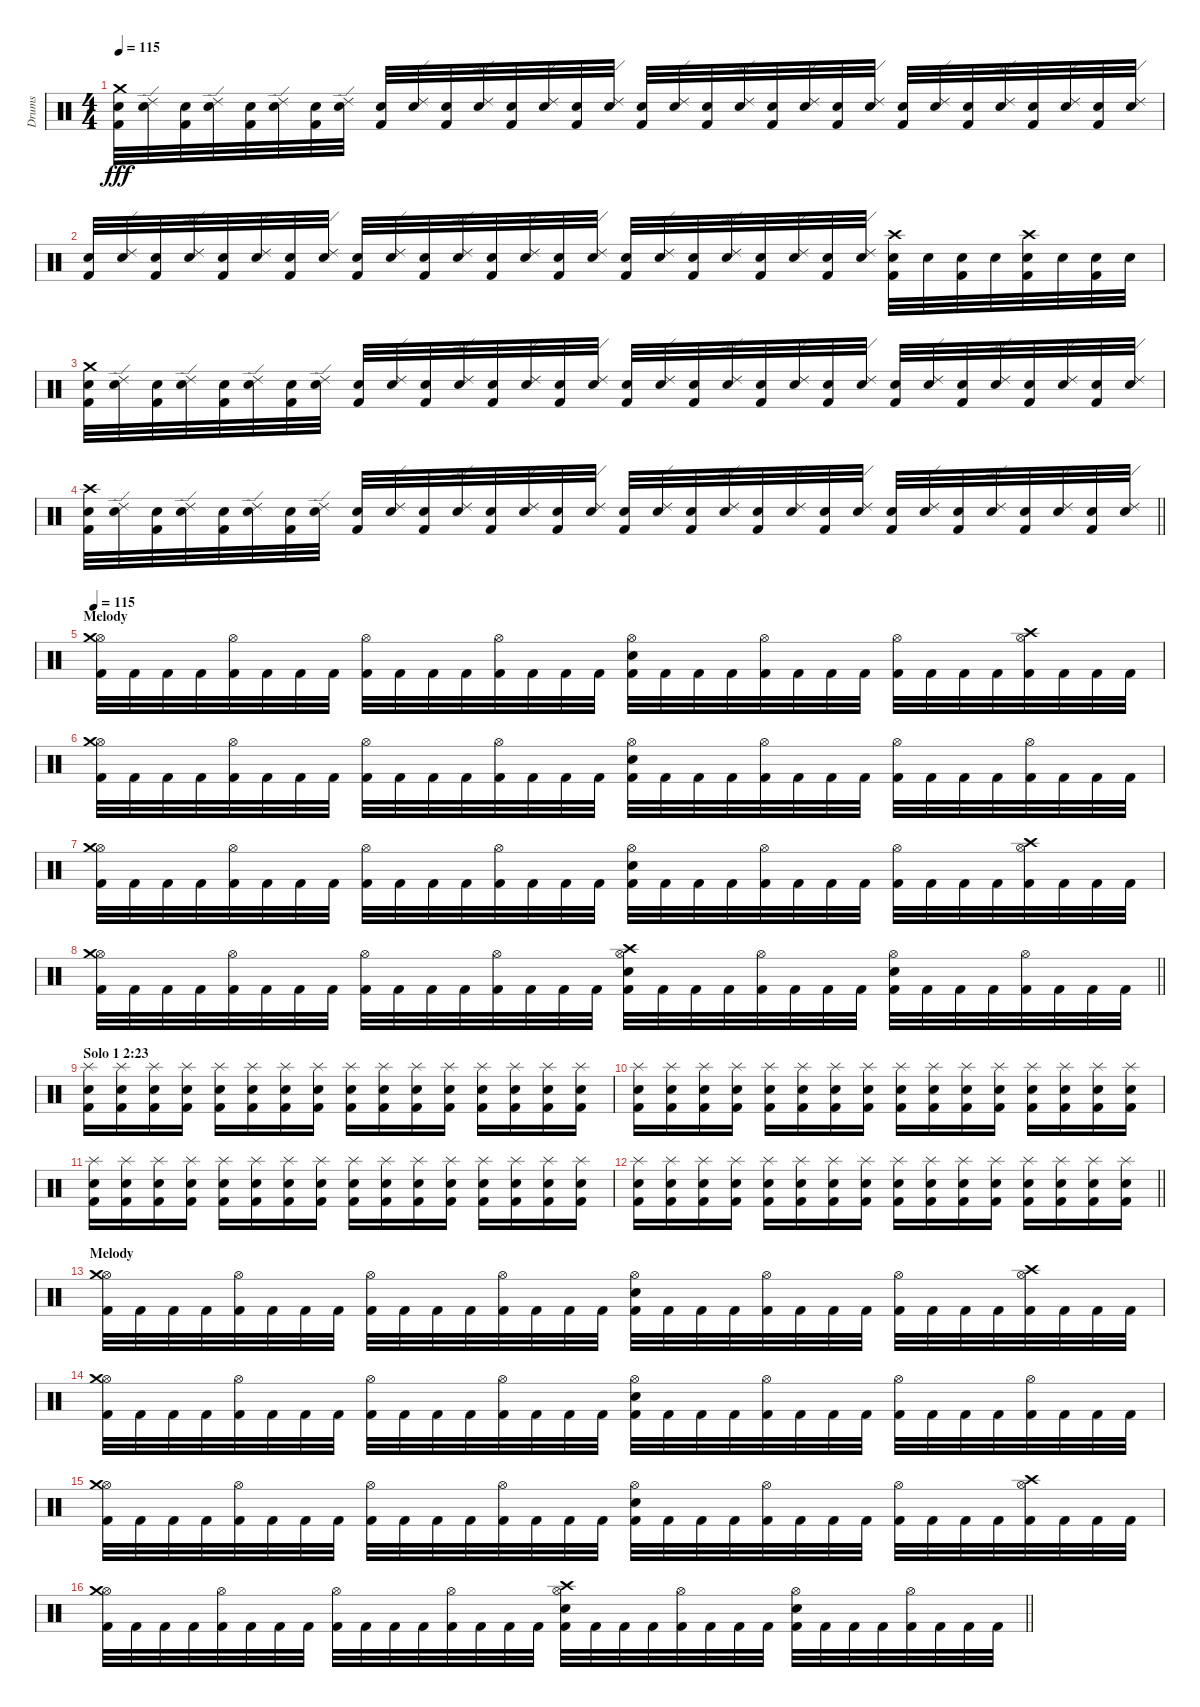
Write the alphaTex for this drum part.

\track ("Drums" "Drums") {instrument percussion}
\staff {score}
\articulation defaults
\ts (4 4)
\tempo 115
\clef neutral
\ks c
("Kick (hit) 2" "Electric Snare (hit)" "Crash medium (hit)").32{dy fff} ("Electric Snare (hit)" "Ride (edge) 2").32 ("Kick (hit) 2" "Electric Snare (hit)").32 ("Electric Snare (hit)" "Ride (edge) 2").32 ("Kick (hit) 2" "Electric Snare (hit)").32 ("Electric Snare (hit)" "Ride (edge) 2").32 ("Kick (hit) 2" "Electric Snare (hit)").32 ("Electric Snare (hit)" "Ride (edge) 2").32 ("Kick (hit) 2" "Electric Snare (hit)").32 ("Electric Snare (hit)" "Ride (edge) 2").32 ("Kick (hit) 2" "Electric Snare (hit)").32 ("Electric Snare (hit)" "Ride (edge) 2").32 ("Kick (hit) 2" "Electric Snare (hit)").32 ("Electric Snare (hit)" "Ride (edge) 2").32 ("Kick (hit) 2" "Electric Snare (hit)").32 ("Electric Snare (hit)" "Ride (edge) 2").32 ("Kick (hit) 2" "Electric Snare (hit)").32 ("Electric Snare (hit)" "Ride (edge) 2").32 ("Kick (hit) 2" "Electric Snare (hit)").32 ("Electric Snare (hit)" "Ride (edge) 2").32 ("Kick (hit) 2" "Electric Snare (hit)").32 ("Electric Snare (hit)" "Ride (edge) 2").32 ("Kick (hit) 2" "Electric Snare (hit)").32 ("Electric Snare (hit)" "Ride (edge) 2").32 ("Kick (hit) 2" "Electric Snare (hit)").32 ("Electric Snare (hit)" "Ride (edge) 2").32 ("Kick (hit) 2" "Electric Snare (hit)").32 ("Electric Snare (hit)" "Ride (edge) 2").32 ("Kick (hit) 2" "Electric Snare (hit)").32 ("Electric Snare (hit)" "Ride (edge) 2").32 ("Kick (hit) 2" "Electric Snare (hit)").32 ("Electric Snare (hit)" "Ride (edge) 2").32 |
("Kick (hit) 2" "Electric Snare (hit)").32 ("Electric Snare (hit)" "Ride (edge) 2").32 ("Kick (hit) 2" "Electric Snare (hit)").32 ("Electric Snare (hit)" "Ride (edge) 2").32 ("Kick (hit) 2" "Electric Snare (hit)").32 ("Electric Snare (hit)" "Ride (edge) 2").32 ("Kick (hit) 2" "Electric Snare (hit)").32 ("Electric Snare (hit)" "Ride (edge) 2").32 ("Kick (hit) 2" "Electric Snare (hit)").32 ("Electric Snare (hit)" "Ride (edge) 2").32 ("Kick (hit) 2" "Electric Snare (hit)").32 ("Electric Snare (hit)" "Ride (edge) 2").32 ("Kick (hit) 2" "Electric Snare (hit)").32 ("Electric Snare (hit)" "Ride (edge) 2").32 ("Kick (hit) 2" "Electric Snare (hit)").32 ("Electric Snare (hit)" "Ride (edge) 2").32 ("Kick (hit) 2" "Electric Snare (hit)").32 ("Electric Snare (hit)" "Ride (edge) 2").32 ("Kick (hit) 2" "Electric Snare (hit)").32 ("Electric Snare (hit)" "Ride (edge) 2").32 ("Kick (hit) 2" "Electric Snare (hit)").32 ("Electric Snare (hit)" "Ride (edge) 2").32 ("Kick (hit) 2" "Electric Snare (hit)").32 ("Electric Snare (hit)" "Ride (edge) 2").32 ("Kick (hit) 2" "Electric Snare (hit)" "Crash high (hit)").32 "Electric Snare (hit)".32 ("Kick (hit) 2" "Electric Snare (hit)").32 "Electric Snare (hit)".32 ("Kick (hit) 2" "Electric Snare (hit)" "Crash high (hit)").32 "Electric Snare (hit)".32 ("Kick (hit) 2" "Electric Snare (hit)").32 "Electric Snare (hit)".32 |
("Kick (hit) 2" "Electric Snare (hit)" "Crash medium (hit)").32 ("Electric Snare (hit)" "Ride (edge) 2").32 ("Kick (hit) 2" "Electric Snare (hit)").32 ("Electric Snare (hit)" "Ride (edge) 2").32 ("Kick (hit) 2" "Electric Snare (hit)").32 ("Electric Snare (hit)" "Ride (edge) 2").32 ("Kick (hit) 2" "Electric Snare (hit)").32 ("Electric Snare (hit)" "Ride (edge) 2").32 ("Kick (hit) 2" "Electric Snare (hit)").32 ("Electric Snare (hit)" "Ride (edge) 2").32 ("Kick (hit) 2" "Electric Snare (hit)").32 ("Electric Snare (hit)" "Ride (edge) 2").32 ("Kick (hit) 2" "Electric Snare (hit)").32 ("Electric Snare (hit)" "Ride (edge) 2").32 ("Kick (hit) 2" "Electric Snare (hit)").32 ("Electric Snare (hit)" "Ride (edge) 2").32 ("Kick (hit) 2" "Electric Snare (hit)").32 ("Electric Snare (hit)" "Ride (edge) 2").32 ("Kick (hit) 2" "Electric Snare (hit)").32 ("Electric Snare (hit)" "Ride (edge) 2").32 ("Kick (hit) 2" "Electric Snare (hit)").32 ("Electric Snare (hit)" "Ride (edge) 2").32 ("Kick (hit) 2" "Electric Snare (hit)").32 ("Electric Snare (hit)" "Ride (edge) 2").32 ("Kick (hit) 2" "Electric Snare (hit)").32 ("Electric Snare (hit)" "Ride (edge) 2").32 ("Kick (hit) 2" "Electric Snare (hit)").32 ("Electric Snare (hit)" "Ride (edge) 2").32 ("Kick (hit) 2" "Electric Snare (hit)").32 ("Electric Snare (hit)" "Ride (edge) 2").32 ("Kick (hit) 2" "Electric Snare (hit)").32 ("Electric Snare (hit)" "Ride (edge) 2").32 |
\barLineRight lightlight
("Kick (hit) 2" "Electric Snare (hit)" "Crash high (hit)").32 ("Electric Snare (hit)" "Ride (edge) 2").32 ("Kick (hit) 2" "Electric Snare (hit)").32 ("Electric Snare (hit)" "Ride (edge) 2").32 ("Kick (hit) 2" "Electric Snare (hit)").32 ("Electric Snare (hit)" "Ride (edge) 2").32 ("Kick (hit) 2" "Electric Snare (hit)").32 ("Electric Snare (hit)" "Ride (edge) 2").32 ("Kick (hit) 2" "Electric Snare (hit)").32 ("Electric Snare (hit)" "Ride (edge) 2").32 ("Kick (hit) 2" "Electric Snare (hit)").32 ("Electric Snare (hit)" "Ride (edge) 2").32 ("Kick (hit) 2" "Electric Snare (hit)").32 ("Electric Snare (hit)" "Ride (edge) 2").32 ("Kick (hit) 2" "Electric Snare (hit)").32 ("Electric Snare (hit)" "Ride (edge) 2").32 ("Kick (hit) 2" "Electric Snare (hit)").32 ("Electric Snare (hit)" "Ride (edge) 2").32 ("Kick (hit) 2" "Electric Snare (hit)").32 ("Electric Snare (hit)" "Ride (edge) 2").32 ("Kick (hit) 2" "Electric Snare (hit)").32 ("Electric Snare (hit)" "Ride (edge) 2").32 ("Kick (hit) 2" "Electric Snare (hit)").32 ("Electric Snare (hit)" "Ride (edge) 2").32 ("Kick (hit) 2" "Electric Snare (hit)").32 ("Electric Snare (hit)" "Ride (edge) 2").32 ("Kick (hit) 2" "Electric Snare (hit)").32 ("Electric Snare (hit)" "Ride (edge) 2").32 ("Kick (hit) 2" "Electric Snare (hit)").32 ("Electric Snare (hit)" "Ride (edge) 2").32 ("Kick (hit) 2" "Electric Snare (hit)").32 ("Electric Snare (hit)" "Ride (edge) 2").32 |
\section ("" "Melody")
\tempo 115
("Kick (hit) 2" "Hi-Hat (open)" "Crash medium (hit)").32 "Kick (hit) 2".32 "Kick (hit) 2".32 "Kick (hit) 2".32 ("Kick (hit) 2" "Hi-Hat (open)").32 "Kick (hit) 2".32 "Kick (hit) 2".32 "Kick (hit) 2".32 ("Kick (hit) 2" "Hi-Hat (open)").32 "Kick (hit) 2".32 "Kick (hit) 2".32 "Kick (hit) 2".32 ("Kick (hit) 2" "Hi-Hat (open)").32 "Kick (hit) 2".32 "Kick (hit) 2".32 "Kick (hit) 2".32 ("Kick (hit) 2" "Electric Snare (hit)" "Hi-Hat (open)").32 "Kick (hit) 2".32 "Kick (hit) 2".32 "Kick (hit) 2".32 ("Kick (hit) 2" "Hi-Hat (open)").32 "Kick (hit) 2".32 "Kick (hit) 2".32 "Kick (hit) 2".32 ("Kick (hit) 2" "Hi-Hat (open)").32 "Kick (hit) 2".32 "Kick (hit) 2".32 "Kick (hit) 2".32 ("Kick (hit) 2" "Hi-Hat (open)" "Crash high (hit)").32 "Kick (hit) 2".32 "Kick (hit) 2".32 "Kick (hit) 2".32 |
("Kick (hit) 2" "Hi-Hat (open)" "Crash medium (hit)").32 "Kick (hit) 2".32 "Kick (hit) 2".32 "Kick (hit) 2".32 ("Kick (hit) 2" "Hi-Hat (open)").32 "Kick (hit) 2".32 "Kick (hit) 2".32 "Kick (hit) 2".32 ("Kick (hit) 2" "Hi-Hat (open)").32 "Kick (hit) 2".32 "Kick (hit) 2".32 "Kick (hit) 2".32 ("Kick (hit) 2" "Hi-Hat (open)").32 "Kick (hit) 2".32 "Kick (hit) 2".32 "Kick (hit) 2".32 ("Kick (hit) 2" "Electric Snare (hit)" "Hi-Hat (open)").32 "Kick (hit) 2".32 "Kick (hit) 2".32 "Kick (hit) 2".32 ("Kick (hit) 2" "Hi-Hat (open)").32 "Kick (hit) 2".32 "Kick (hit) 2".32 "Kick (hit) 2".32 ("Kick (hit) 2" "Hi-Hat (open)").32 "Kick (hit) 2".32 "Kick (hit) 2".32 "Kick (hit) 2".32 ("Kick (hit) 2" "Hi-Hat (open)").32 "Kick (hit) 2".32 "Kick (hit) 2".32 "Kick (hit) 2".32 |
("Kick (hit) 2" "Hi-Hat (open)" "Crash medium (hit)").32 "Kick (hit) 2".32 "Kick (hit) 2".32 "Kick (hit) 2".32 ("Kick (hit) 2" "Hi-Hat (open)").32 "Kick (hit) 2".32 "Kick (hit) 2".32 "Kick (hit) 2".32 ("Kick (hit) 2" "Hi-Hat (open)").32 "Kick (hit) 2".32 "Kick (hit) 2".32 "Kick (hit) 2".32 ("Kick (hit) 2" "Hi-Hat (open)").32 "Kick (hit) 2".32 "Kick (hit) 2".32 "Kick (hit) 2".32 ("Kick (hit) 2" "Electric Snare (hit)" "Hi-Hat (open)").32 "Kick (hit) 2".32 "Kick (hit) 2".32 "Kick (hit) 2".32 ("Kick (hit) 2" "Hi-Hat (open)").32 "Kick (hit) 2".32 "Kick (hit) 2".32 "Kick (hit) 2".32 ("Kick (hit) 2" "Hi-Hat (open)").32 "Kick (hit) 2".32 "Kick (hit) 2".32 "Kick (hit) 2".32 ("Kick (hit) 2" "Hi-Hat (open)" "Crash high (hit)").32 "Kick (hit) 2".32 "Kick (hit) 2".32 "Kick (hit) 2".32 |
\barLineRight lightlight
("Kick (hit) 2" "Hi-Hat (open)" "Crash medium (hit)").32 "Kick (hit) 2".32 "Kick (hit) 2".32 "Kick (hit) 2".32 ("Kick (hit) 2" "Hi-Hat (open)").32 "Kick (hit) 2".32 "Kick (hit) 2".32 "Kick (hit) 2".32 ("Kick (hit) 2" "Hi-Hat (open)").32 "Kick (hit) 2".32 "Kick (hit) 2".32 "Kick (hit) 2".32 ("Kick (hit) 2" "Hi-Hat (open)").32 "Kick (hit) 2".32 "Kick (hit) 2".32 "Kick (hit) 2".32 ("Kick (hit) 2" "Electric Snare (hit)" "Hi-Hat (open)" "Crash high (hit)").32 "Kick (hit) 2".32 "Kick (hit) 2".32 "Kick (hit) 2".32 ("Kick (hit) 2" "Hi-Hat (open)").32 "Kick (hit) 2".32 "Kick (hit) 2".32 "Kick (hit) 2".32 ("Kick (hit) 2" "Electric Snare (hit)" "Hi-Hat (open)").32 "Kick (hit) 2".32 "Kick (hit) 2".32 "Kick (hit) 2".32 ("Kick (hit) 2" "Hi-Hat (open)").32 "Kick (hit) 2".32 "Kick (hit) 2".32 "Kick (hit) 2".32 |
\section ("" "Solo 1 2:23 ")
("Kick (hit) 2" "Electric Snare (hit)" "Splash (hit)").16 ("Kick (hit) 2" "Electric Snare (hit)" "Splash (hit)").16 ("Kick (hit) 2" "Electric Snare (hit)" "Splash (hit)").16 ("Kick (hit) 2" "Electric Snare (hit)" "Splash (hit)").16 ("Kick (hit) 2" "Electric Snare (hit)" "Splash (hit)").16 ("Kick (hit) 2" "Electric Snare (hit)" "Splash (hit)").16 ("Kick (hit) 2" "Electric Snare (hit)" "Splash (hit)").16 ("Kick (hit) 2" "Electric Snare (hit)" "Splash (hit)").16 ("Kick (hit) 2" "Electric Snare (hit)" "Splash (hit)").16 ("Kick (hit) 2" "Electric Snare (hit)" "Splash (hit)").16 ("Kick (hit) 2" "Electric Snare (hit)" "Splash (hit)").16 ("Kick (hit) 2" "Electric Snare (hit)" "Splash (hit)").16 ("Kick (hit) 2" "Electric Snare (hit)" "Splash (hit)").16 ("Kick (hit) 2" "Electric Snare (hit)" "Splash (hit)").16 ("Kick (hit) 2" "Electric Snare (hit)" "Splash (hit)").16 ("Kick (hit) 2" "Electric Snare (hit)" "Splash (hit)").16 |
("Kick (hit) 2" "Electric Snare (hit)" "Splash (hit)").16 ("Kick (hit) 2" "Electric Snare (hit)" "Splash (hit)").16 ("Kick (hit) 2" "Electric Snare (hit)" "Splash (hit)").16 ("Kick (hit) 2" "Electric Snare (hit)" "Splash (hit)").16 ("Kick (hit) 2" "Electric Snare (hit)" "Splash (hit)").16 ("Kick (hit) 2" "Electric Snare (hit)" "Splash (hit)").16 ("Kick (hit) 2" "Electric Snare (hit)" "Splash (hit)").16 ("Kick (hit) 2" "Electric Snare (hit)" "Splash (hit)").16 ("Kick (hit) 2" "Electric Snare (hit)" "Splash (hit)").16 ("Kick (hit) 2" "Electric Snare (hit)" "Splash (hit)").16 ("Kick (hit) 2" "Electric Snare (hit)" "Splash (hit)").16 ("Kick (hit) 2" "Electric Snare (hit)" "Splash (hit)").16 ("Kick (hit) 2" "Electric Snare (hit)" "Splash (hit)").16 ("Kick (hit) 2" "Electric Snare (hit)" "Splash (hit)").16 ("Kick (hit) 2" "Electric Snare (hit)" "Splash (hit)").16 ("Kick (hit) 2" "Electric Snare (hit)" "Splash (hit)").16 |
("Kick (hit) 2" "Electric Snare (hit)" "Splash (hit)").16 ("Kick (hit) 2" "Electric Snare (hit)" "Splash (hit)").16 ("Kick (hit) 2" "Electric Snare (hit)" "Splash (hit)").16 ("Kick (hit) 2" "Electric Snare (hit)" "Splash (hit)").16 ("Kick (hit) 2" "Electric Snare (hit)" "Splash (hit)").16 ("Kick (hit) 2" "Electric Snare (hit)" "Splash (hit)").16 ("Kick (hit) 2" "Electric Snare (hit)" "Splash (hit)").16 ("Kick (hit) 2" "Electric Snare (hit)" "Splash (hit)").16 ("Kick (hit) 2" "Electric Snare (hit)" "Splash (hit)").16 ("Kick (hit) 2" "Electric Snare (hit)" "Splash (hit)").16 ("Kick (hit) 2" "Electric Snare (hit)" "Splash (hit)").16 ("Kick (hit) 2" "Electric Snare (hit)" "Splash (hit)").16 ("Kick (hit) 2" "Electric Snare (hit)" "Splash (hit)").16 ("Kick (hit) 2" "Electric Snare (hit)" "Splash (hit)").16 ("Kick (hit) 2" "Electric Snare (hit)" "Splash (hit)").16 ("Kick (hit) 2" "Electric Snare (hit)" "Splash (hit)").16 |
\barLineRight lightlight
("Kick (hit) 2" "Electric Snare (hit)" "Splash (hit)").16 ("Kick (hit) 2" "Electric Snare (hit)" "Splash (hit)").16 ("Kick (hit) 2" "Electric Snare (hit)" "Splash (hit)").16 ("Kick (hit) 2" "Electric Snare (hit)" "Splash (hit)").16 ("Kick (hit) 2" "Electric Snare (hit)" "Splash (hit)").16 ("Kick (hit) 2" "Electric Snare (hit)" "Splash (hit)").16 ("Kick (hit) 2" "Electric Snare (hit)" "Splash (hit)").16 ("Kick (hit) 2" "Electric Snare (hit)" "Splash (hit)").16 ("Kick (hit) 2" "Electric Snare (hit)" "Splash (hit)").16 ("Kick (hit) 2" "Electric Snare (hit)" "Splash (hit)").16 ("Kick (hit) 2" "Electric Snare (hit)" "Splash (hit)").16 ("Kick (hit) 2" "Electric Snare (hit)" "Splash (hit)").16 ("Kick (hit) 2" "Electric Snare (hit)" "Splash (hit)").16 ("Kick (hit) 2" "Electric Snare (hit)" "Splash (hit)").16 ("Kick (hit) 2" "Electric Snare (hit)" "Splash (hit)").16 ("Kick (hit) 2" "Electric Snare (hit)" "Splash (hit)").16 |
\section ("" "Melody")
("Kick (hit) 2" "Hi-Hat (open)" "Crash medium (hit)").32 "Kick (hit) 2".32 "Kick (hit) 2".32 "Kick (hit) 2".32 ("Kick (hit) 2" "Hi-Hat (open)").32 "Kick (hit) 2".32 "Kick (hit) 2".32 "Kick (hit) 2".32 ("Kick (hit) 2" "Hi-Hat (open)").32 "Kick (hit) 2".32 "Kick (hit) 2".32 "Kick (hit) 2".32 ("Kick (hit) 2" "Hi-Hat (open)").32 "Kick (hit) 2".32 "Kick (hit) 2".32 "Kick (hit) 2".32 ("Kick (hit) 2" "Electric Snare (hit)" "Hi-Hat (open)").32 "Kick (hit) 2".32 "Kick (hit) 2".32 "Kick (hit) 2".32 ("Kick (hit) 2" "Hi-Hat (open)").32 "Kick (hit) 2".32 "Kick (hit) 2".32 "Kick (hit) 2".32 ("Kick (hit) 2" "Hi-Hat (open)").32 "Kick (hit) 2".32 "Kick (hit) 2".32 "Kick (hit) 2".32 ("Kick (hit) 2" "Hi-Hat (open)" "Crash high (hit)").32 "Kick (hit) 2".32 "Kick (hit) 2".32 "Kick (hit) 2".32 |
("Kick (hit) 2" "Hi-Hat (open)" "Crash medium (hit)").32 "Kick (hit) 2".32 "Kick (hit) 2".32 "Kick (hit) 2".32 ("Kick (hit) 2" "Hi-Hat (open)").32 "Kick (hit) 2".32 "Kick (hit) 2".32 "Kick (hit) 2".32 ("Kick (hit) 2" "Hi-Hat (open)").32 "Kick (hit) 2".32 "Kick (hit) 2".32 "Kick (hit) 2".32 ("Kick (hit) 2" "Hi-Hat (open)").32 "Kick (hit) 2".32 "Kick (hit) 2".32 "Kick (hit) 2".32 ("Kick (hit) 2" "Electric Snare (hit)" "Hi-Hat (open)").32 "Kick (hit) 2".32 "Kick (hit) 2".32 "Kick (hit) 2".32 ("Kick (hit) 2" "Hi-Hat (open)").32 "Kick (hit) 2".32 "Kick (hit) 2".32 "Kick (hit) 2".32 ("Kick (hit) 2" "Hi-Hat (open)").32 "Kick (hit) 2".32 "Kick (hit) 2".32 "Kick (hit) 2".32 ("Kick (hit) 2" "Hi-Hat (open)").32 "Kick (hit) 2".32 "Kick (hit) 2".32 "Kick (hit) 2".32 |
("Kick (hit) 2" "Hi-Hat (open)" "Crash medium (hit)").32 "Kick (hit) 2".32 "Kick (hit) 2".32 "Kick (hit) 2".32 ("Kick (hit) 2" "Hi-Hat (open)").32 "Kick (hit) 2".32 "Kick (hit) 2".32 "Kick (hit) 2".32 ("Kick (hit) 2" "Hi-Hat (open)").32 "Kick (hit) 2".32 "Kick (hit) 2".32 "Kick (hit) 2".32 ("Kick (hit) 2" "Hi-Hat (open)").32 "Kick (hit) 2".32 "Kick (hit) 2".32 "Kick (hit) 2".32 ("Kick (hit) 2" "Electric Snare (hit)" "Hi-Hat (open)").32 "Kick (hit) 2".32 "Kick (hit) 2".32 "Kick (hit) 2".32 ("Kick (hit) 2" "Hi-Hat (open)").32 "Kick (hit) 2".32 "Kick (hit) 2".32 "Kick (hit) 2".32 ("Kick (hit) 2" "Hi-Hat (open)").32 "Kick (hit) 2".32 "Kick (hit) 2".32 "Kick (hit) 2".32 ("Kick (hit) 2" "Hi-Hat (open)" "Crash high (hit)").32 "Kick (hit) 2".32 "Kick (hit) 2".32 "Kick (hit) 2".32 |
\barLineRight lightlight
("Kick (hit) 2" "Hi-Hat (open)" "Crash medium (hit)").32 "Kick (hit) 2".32 "Kick (hit) 2".32 "Kick (hit) 2".32 ("Kick (hit) 2" "Hi-Hat (open)").32 "Kick (hit) 2".32 "Kick (hit) 2".32 "Kick (hit) 2".32 ("Kick (hit) 2" "Hi-Hat (open)").32 "Kick (hit) 2".32 "Kick (hit) 2".32 "Kick (hit) 2".32 ("Kick (hit) 2" "Hi-Hat (open)").32 "Kick (hit) 2".32 "Kick (hit) 2".32 "Kick (hit) 2".32 ("Kick (hit) 2" "Electric Snare (hit)" "Hi-Hat (open)" "Crash high (hit)").32 "Kick (hit) 2".32 "Kick (hit) 2".32 "Kick (hit) 2".32 ("Kick (hit) 2" "Hi-Hat (open)").32 "Kick (hit) 2".32 "Kick (hit) 2".32 "Kick (hit) 2".32 ("Kick (hit) 2" "Electric Snare (hit)" "Hi-Hat (open)").32 "Kick (hit) 2".32 "Kick (hit) 2".32 "Kick (hit) 2".32 ("Kick (hit) 2" "Hi-Hat (open)").32 "Kick (hit) 2".32 "Kick (hit) 2".32 "Kick (hit) 2".32
